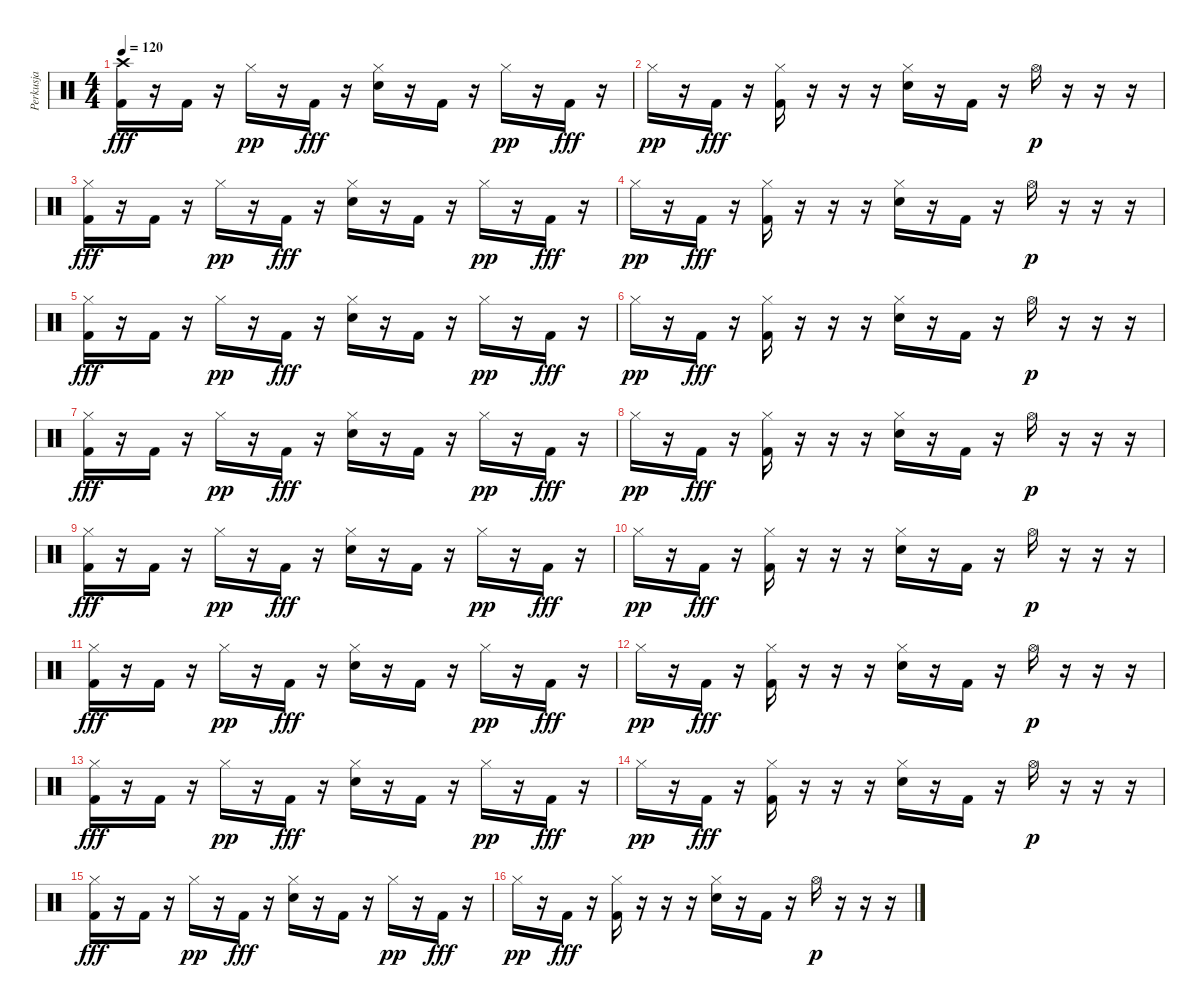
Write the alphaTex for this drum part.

\track ("Perkusja" "Perkusja") {instrument percussion}
\staff {score}
\articulation defaults
\ts (4 4)
\tempo 120
\clef neutral
\ks c
("Crash high (hit)" "Kick (hit) 2").16{dy fff volume 9} r.16 "Kick (hit) 2".16 r.16 "Hi-Hat (closed)".16{dy pp} r.16 "Kick (hit) 2".16{dy fff} r.16 ("Hi-Hat (closed)" "Electric Snare (hit)").16 r.16 "Kick (hit) 2".16 r.16 "Hi-Hat (closed)".16{dy pp} r.16 "Kick (hit) 2".16{dy fff} r.16 |
"Hi-Hat (closed)".16{dy pp} r.16 "Kick (hit) 2".16{dy fff} r.16 ("Hi-Hat (closed)" "Kick (hit) 2").16 r.16 r.16 r.16 ("Hi-Hat (closed)" "Electric Snare (hit)").16 r.16 "Kick (hit) 2".16 r.16 "Hi-Hat (open)".16{dy p} r.16 r.16 r.16 |
("Hi-Hat (closed)" "Kick (hit) 2").16{dy fff} r.16 "Kick (hit) 2".16 r.16 "Hi-Hat (closed)".16{dy pp} r.16 "Kick (hit) 2".16{dy fff} r.16 ("Hi-Hat (closed)" "Electric Snare (hit)").16 r.16 "Kick (hit) 2".16 r.16 "Hi-Hat (closed)".16{dy pp} r.16 "Kick (hit) 2".16{dy fff} r.16 |
"Hi-Hat (closed)".16{dy pp} r.16 "Kick (hit) 2".16{dy fff} r.16 ("Hi-Hat (closed)" "Kick (hit) 2").16 r.16 r.16 r.16 ("Hi-Hat (closed)" "Electric Snare (hit)").16 r.16 "Kick (hit) 2".16 r.16 "Hi-Hat (open)".16{dy p} r.16 r.16 r.16 |
("Hi-Hat (closed)" "Kick (hit) 2").16{dy fff} r.16 "Kick (hit) 2".16 r.16 "Hi-Hat (closed)".16{dy pp} r.16 "Kick (hit) 2".16{dy fff} r.16 ("Hi-Hat (closed)" "Electric Snare (hit)").16 r.16 "Kick (hit) 2".16 r.16 "Hi-Hat (closed)".16{dy pp} r.16 "Kick (hit) 2".16{dy fff} r.16 |
"Hi-Hat (closed)".16{dy pp} r.16 "Kick (hit) 2".16{dy fff} r.16 ("Hi-Hat (closed)" "Kick (hit) 2").16 r.16 r.16 r.16 ("Hi-Hat (closed)" "Electric Snare (hit)").16 r.16 "Kick (hit) 2".16 r.16 "Hi-Hat (open)".16{dy p} r.16 r.16 r.16 |
("Hi-Hat (closed)" "Kick (hit) 2").16{dy fff} r.16 "Kick (hit) 2".16 r.16 "Hi-Hat (closed)".16{dy pp} r.16 "Kick (hit) 2".16{dy fff} r.16 ("Hi-Hat (closed)" "Electric Snare (hit)").16 r.16 "Kick (hit) 2".16 r.16 "Hi-Hat (closed)".16{dy pp} r.16 "Kick (hit) 2".16{dy fff} r.16 |
"Hi-Hat (closed)".16{dy pp} r.16 "Kick (hit) 2".16{dy fff} r.16 ("Hi-Hat (closed)" "Kick (hit) 2").16 r.16 r.16 r.16 ("Hi-Hat (closed)" "Electric Snare (hit)").16 r.16 "Kick (hit) 2".16 r.16 "Hi-Hat (open)".16{dy p} r.16 r.16 r.16 |
("Hi-Hat (closed)" "Kick (hit) 2").16{dy fff} r.16 "Kick (hit) 2".16 r.16 "Hi-Hat (closed)".16{dy pp} r.16 "Kick (hit) 2".16{dy fff} r.16 ("Hi-Hat (closed)" "Electric Snare (hit)").16 r.16 "Kick (hit) 2".16 r.16 "Hi-Hat (closed)".16{dy pp} r.16 "Kick (hit) 2".16{dy fff} r.16 |
"Hi-Hat (closed)".16{dy pp} r.16 "Kick (hit) 2".16{dy fff} r.16 ("Hi-Hat (closed)" "Kick (hit) 2").16 r.16 r.16 r.16 ("Hi-Hat (closed)" "Electric Snare (hit)").16 r.16 "Kick (hit) 2".16 r.16 "Hi-Hat (open)".16{dy p} r.16 r.16 r.16 |
("Hi-Hat (closed)" "Kick (hit) 2").16{dy fff} r.16 "Kick (hit) 2".16 r.16 "Hi-Hat (closed)".16{dy pp} r.16 "Kick (hit) 2".16{dy fff} r.16 ("Hi-Hat (closed)" "Electric Snare (hit)").16 r.16 "Kick (hit) 2".16 r.16 "Hi-Hat (closed)".16{dy pp} r.16 "Kick (hit) 2".16{dy fff} r.16 |
"Hi-Hat (closed)".16{dy pp} r.16 "Kick (hit) 2".16{dy fff} r.16 ("Hi-Hat (closed)" "Kick (hit) 2").16 r.16 r.16 r.16 ("Hi-Hat (closed)" "Electric Snare (hit)").16 r.16 "Kick (hit) 2".16 r.16 "Hi-Hat (open)".16{dy p} r.16 r.16 r.16 |
("Hi-Hat (closed)" "Kick (hit) 2").16{dy fff} r.16 "Kick (hit) 2".16 r.16 "Hi-Hat (closed)".16{dy pp} r.16 "Kick (hit) 2".16{dy fff} r.16 ("Hi-Hat (closed)" "Electric Snare (hit)").16 r.16 "Kick (hit) 2".16 r.16 "Hi-Hat (closed)".16{dy pp} r.16 "Kick (hit) 2".16{dy fff} r.16 |
"Hi-Hat (closed)".16{dy pp} r.16 "Kick (hit) 2".16{dy fff} r.16 ("Hi-Hat (closed)" "Kick (hit) 2").16 r.16 r.16 r.16 ("Hi-Hat (closed)" "Electric Snare (hit)").16 r.16 "Kick (hit) 2".16 r.16 "Hi-Hat (open)".16{dy p} r.16 r.16 r.16 |
("Hi-Hat (closed)" "Kick (hit) 2").16{dy fff} r.16 "Kick (hit) 2".16 r.16 "Hi-Hat (closed)".16{dy pp} r.16 "Kick (hit) 2".16{dy fff} r.16 ("Hi-Hat (closed)" "Electric Snare (hit)").16 r.16 "Kick (hit) 2".16 r.16 "Hi-Hat (closed)".16{dy pp} r.16 "Kick (hit) 2".16{dy fff} r.16 |
"Hi-Hat (closed)".16{dy pp} r.16 "Kick (hit) 2".16{dy fff} r.16 ("Hi-Hat (closed)" "Kick (hit) 2").16 r.16 r.16 r.16 ("Hi-Hat (closed)" "Electric Snare (hit)").16 r.16 "Kick (hit) 2".16 r.16 "Hi-Hat (open)".16{dy p} r.16 r.16 r.16
